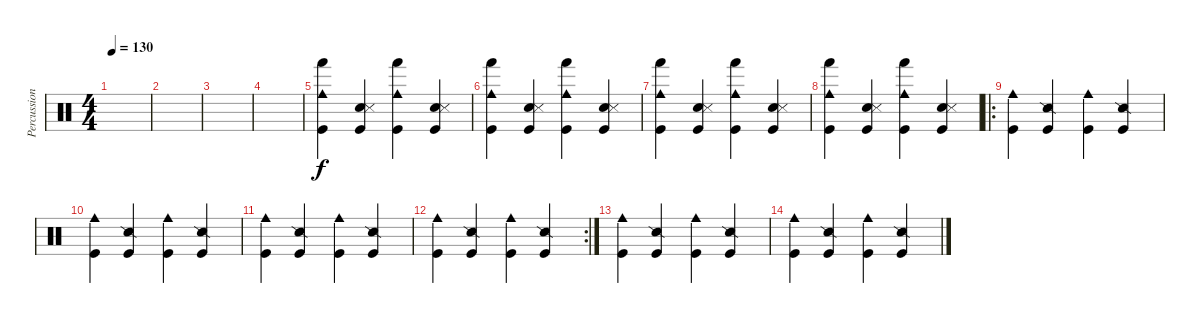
\track ("Percussions" "Percussion") {instrument percussion}
\staff {score}
\articulation defaults
\ts (4 4)
\tempo 130
\clef neutral
\ks c
|
|
|
|
("Kick (hit)" "Hand (hit)" "Cowbell medium (hit)").4 ("Kick (hit)" "Electric Snare (hit)" "Snare (side stick) 3").4 ("Kick (hit)" "Hand (hit)" "Cowbell medium (hit)").4 ("Kick (hit)" "Electric Snare (hit)" "Snare (side stick) 3").4 |
("Kick (hit)" "Hand (hit)" "Cowbell medium (hit)").4 ("Kick (hit)" "Electric Snare (hit)" "Snare (side stick) 3").4 ("Kick (hit)" "Hand (hit)" "Cowbell medium (hit)").4 ("Kick (hit)" "Electric Snare (hit)" "Snare (side stick) 3").4 |
("Kick (hit)" "Hand (hit)" "Cowbell medium (hit)").4 ("Kick (hit)" "Electric Snare (hit)" "Snare (side stick) 3").4 ("Kick (hit)" "Hand (hit)" "Cowbell medium (hit)").4 ("Kick (hit)" "Electric Snare (hit)" "Snare (side stick) 3").4 |
("Kick (hit)" "Hand (hit)" "Cowbell medium (hit)").4 ("Kick (hit)" "Electric Snare (hit)" "Snare (side stick) 3").4 ("Kick (hit)" "Hand (hit)" "Cowbell medium (hit)").4 ("Kick (hit)" "Electric Snare (hit)" "Snare (side stick) 3").4 |
\ro
("Cowbell medium (hit)" "Kick (hit)").4 ("Snare (side stick) 2" "Kick (hit)").4 ("Cowbell medium (hit)" "Kick (hit)").4 ("Snare (side stick) 2" "Kick (hit)").4 |
("Cowbell medium (hit)" "Kick (hit)").4 ("Snare (side stick) 2" "Kick (hit)").4 ("Cowbell medium (hit)" "Kick (hit)").4 ("Snare (side stick) 2" "Kick (hit)").4 |
("Cowbell medium (hit)" "Kick (hit)").4 ("Snare (side stick) 2" "Kick (hit)").4 ("Cowbell medium (hit)" "Kick (hit)").4 ("Snare (side stick) 2" "Kick (hit)").4 |
\rc 2
("Cowbell medium (hit)" "Kick (hit)").4 ("Snare (side stick) 2" "Kick (hit)").4 ("Cowbell medium (hit)" "Kick (hit)").4 ("Snare (side stick) 2" "Kick (hit)").4 |
("Cowbell medium (hit)" "Kick (hit)").4 ("Snare (side stick) 2" "Kick (hit)").4 ("Cowbell medium (hit)" "Kick (hit)").4 ("Snare (side stick) 2" "Kick (hit)").4 |
("Cowbell medium (hit)" "Kick (hit)").4 ("Snare (side stick) 2" "Kick (hit)").4 ("Cowbell medium (hit)" "Kick (hit)").4 ("Snare (side stick) 2" "Kick (hit)").4
